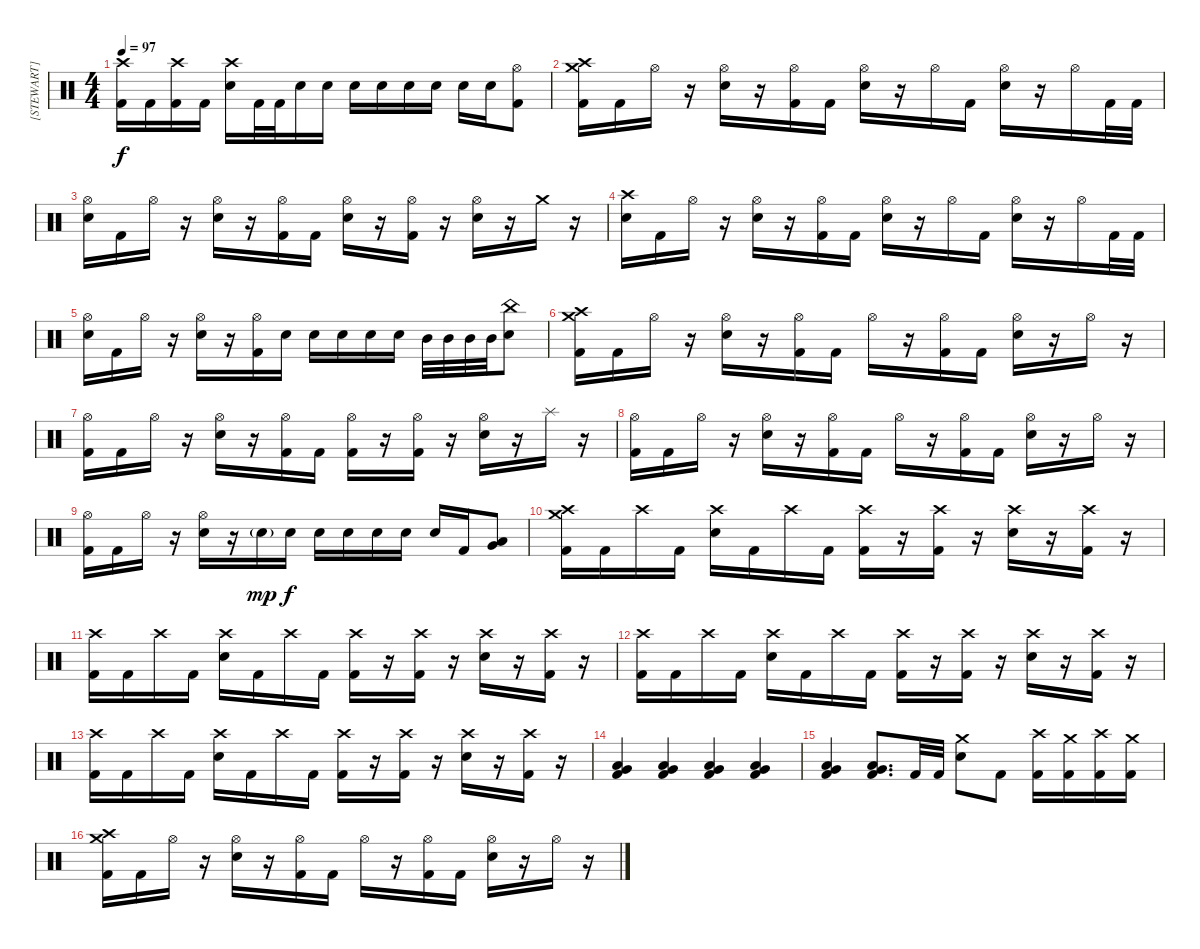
\track ("[STEWART]" "[STEWART]") {instrument percussion}
\staff {score}
\articulation defaults
\ts (4 4)
\tempo 97
\clef neutral
\ks c
("Crash high (hit)" "Kick (hit) 2").16{dy f} "Kick (hit) 2".16 ("Crash high (hit)" "Kick (hit) 2").16 "Kick (hit) 2".16 ("Crash high (hit)" "Electric Snare (hit)").16 "Kick (hit) 2".32 "Kick (hit) 2".32 "Electric Snare (hit)".16 "Electric Snare (hit)".16 "Electric Snare (hit)".16 "Electric Snare (hit)".16 "Electric Snare (hit)".16 "Electric Snare (hit)".16 "Electric Snare (hit)".16 "Electric Snare (hit)".16 ("Hi-Hat (open)" "Kick (hit) 2").8 |
("Crash high (hit)" "Crash medium (hit)" "Kick (hit) 2").16 "Kick (hit) 2".16 "Hi-Hat (open)".16 r.16 ("Hi-Hat (open)" "Electric Snare (hit)").16 r.16 ("Hi-Hat (open)" "Kick (hit) 2").16 "Kick (hit) 2".16 ("Hi-Hat (open)" "Electric Snare (hit)").16 r.16 "Hi-Hat (open)".16 "Kick (hit) 2".16 ("Hi-Hat (open)" "Electric Snare (hit)").16 r.16 "Hi-Hat (open)".16 "Kick (hit) 2".32 "Kick (hit) 2".32 |
("Hi-Hat (open)" "Electric Snare (hit)").16 "Kick (hit) 2".16 "Hi-Hat (open)".16 r.16 ("Hi-Hat (open)" "Electric Snare (hit)").16 r.16 ("Hi-Hat (open)" "Kick (hit) 2").16 "Kick (hit) 2".16 ("Hi-Hat (open)" "Electric Snare (hit)").16 r.16 ("Hi-Hat (open)" "Kick (hit) 2").16 r.16 ("Hi-Hat (open)" "Electric Snare (hit)").16 r.16 "Crash medium (hit)".16 r.16 |
("Crash high (hit)" "Electric Snare (hit)").16 "Kick (hit) 2".16 "Hi-Hat (open)".16 r.16 ("Hi-Hat (open)" "Electric Snare (hit)").16 r.16 ("Hi-Hat (open)" "Kick (hit) 2").16 "Kick (hit) 2".16 ("Hi-Hat (open)" "Electric Snare (hit)").16 r.16 "Hi-Hat (open)".16 "Kick (hit) 2".16 ("Hi-Hat (open)" "Electric Snare (hit)").16 r.16 "Hi-Hat (open)".16 "Kick (hit) 2".32 "Kick (hit) 2".32 |
("Hi-Hat (open)" "Electric Snare (hit)").16 "Kick (hit) 2".16 "Hi-Hat (open)".16 r.16 ("Hi-Hat (open)" "Electric Snare (hit)").16 r.16 ("Hi-Hat (open)" "Kick (hit) 2").16 "Electric Snare (hit)".16 "Electric Snare (hit)".16 "Electric Snare (hit)".16 "Electric Snare (hit)".16 "Electric Snare (hit)".16 "Mid Tom (hit)".32 "Mid Tom (hit)".32 "Mid Tom (hit)".32 "Mid Tom (hit)".32 ("China (hit)" "Electric Snare (hit)").8 |
("Crash high (hit)" "Crash medium (hit)" "Kick (hit) 2").16 "Kick (hit) 2".16 "Hi-Hat (open)".16 r.16 ("Hi-Hat (open)" "Electric Snare (hit)").16 r.16 ("Hi-Hat (open)" "Kick (hit) 2").16 "Kick (hit) 2".16 "Hi-Hat (open)".16 r.16 ("Hi-Hat (open)" "Kick (hit) 2").16 "Kick (hit) 2".16 ("Hi-Hat (open)" "Electric Snare (hit)").16 r.16 "Hi-Hat (open)".16 r.16 |
("Hi-Hat (open)" "Kick (hit) 2").16 "Kick (hit) 2".16 "Hi-Hat (open)".16 r.16 ("Hi-Hat (open)" "Electric Snare (hit)").16 r.16 ("Hi-Hat (open)" "Kick (hit) 2").16 "Kick (hit) 2".16 ("Hi-Hat (open)" "Kick (hit) 2").16 r.16 ("Hi-Hat (open)" "Kick (hit) 2").16 r.16 ("Hi-Hat (open)" "Electric Snare (hit)").16 r.16 "Splash (hit)".16 r.16 |
("Hi-Hat (open)" "Kick (hit) 2").16 "Kick (hit) 2".16 "Hi-Hat (open)".16 r.16 ("Hi-Hat (open)" "Electric Snare (hit)").16 r.16 ("Hi-Hat (open)" "Kick (hit) 2").16 "Kick (hit) 2".16 "Hi-Hat (open)".16 r.16 ("Hi-Hat (open)" "Kick (hit) 2").16 "Kick (hit) 2".16 ("Hi-Hat (open)" "Electric Snare (hit)").16 r.16 "Hi-Hat (open)".16 r.16 |
("Hi-Hat (open)" "Kick (hit) 2").16 "Kick (hit) 2".16 "Hi-Hat (open)".16 r.16 ("Hi-Hat (open)" "Electric Snare (hit)").16 r.16 "Electric Snare (hit)"{g}.16{dy mp} "Electric Snare (hit)".16{dy f} "Electric Snare (hit)".16 "Electric Snare (hit)".16 "Electric Snare (hit)".16 "Electric Snare (hit)".16 "Electric Snare (hit)".16 "Kick (hit) 2".16 ("Low Tom (hit)" "Very Low Tom (hit)").8 |
("Crash high (hit)" "Crash medium (hit)" "Kick (hit) 2").16 "Kick (hit) 2".16 "Crash high (hit)".16 "Kick (hit) 2".16 ("Crash high (hit)" "Electric Snare (hit)").16 "Kick (hit) 2".16 "Crash high (hit)".16 "Kick (hit) 2".16 ("Crash high (hit)" "Kick (hit) 2").16 r.16 ("Crash high (hit)" "Kick (hit) 2").16 r.16 ("Crash high (hit)" "Electric Snare (hit)").16 r.16 ("Crash high (hit)" "Kick (hit) 2").16 r.16 |
("Crash high (hit)" "Kick (hit) 2").16 "Kick (hit) 2".16 "Crash high (hit)".16 "Kick (hit) 2".16 ("Crash high (hit)" "Electric Snare (hit)").16 "Kick (hit) 2".16 "Crash high (hit)".16 "Kick (hit) 2".16 ("Crash high (hit)" "Kick (hit) 2").16 r.16 ("Crash high (hit)" "Kick (hit) 2").16 r.16 ("Crash high (hit)" "Electric Snare (hit)").16 r.16 ("Crash high (hit)" "Kick (hit) 2").16 r.16 |
("Crash high (hit)" "Kick (hit) 2").16 "Kick (hit) 2".16 "Crash high (hit)".16 "Kick (hit) 2".16 ("Crash high (hit)" "Electric Snare (hit)").16 "Kick (hit) 2".16 "Crash high (hit)".16 "Kick (hit) 2".16 ("Crash high (hit)" "Kick (hit) 2").16 r.16 ("Crash high (hit)" "Kick (hit) 2").16 r.16 ("Crash high (hit)" "Electric Snare (hit)").16 r.16 ("Crash high (hit)" "Kick (hit) 2").16 r.16 |
("Crash high (hit)" "Kick (hit) 2").16 "Kick (hit) 2".16 "Crash high (hit)".16 "Kick (hit) 2".16 ("Crash high (hit)" "Electric Snare (hit)").16 "Kick (hit) 2".16 "Crash high (hit)".16 "Kick (hit) 2".16 ("Crash high (hit)" "Kick (hit) 2").16 r.16 ("Crash high (hit)" "Kick (hit) 2").16 r.16 ("Crash high (hit)" "Electric Snare (hit)").16 r.16 ("Crash high (hit)" "Kick (hit) 2").16 r.16 |
("Low Tom (hit)" "Very Low Tom (hit)" "Kick (hit) 2").4 ("Low Tom (hit)" "Very Low Tom (hit)" "Kick (hit) 2").4 ("Low Tom (hit)" "Very Low Tom (hit)" "Kick (hit) 2").4 ("Low Tom (hit)" "Very Low Tom (hit)" "Kick (hit) 2").4 |
("Low Tom (hit)" "Very Low Tom (hit)" "Kick (hit) 2").4 ("Low Tom (hit)" "Very Low Tom (hit)" "Kick (hit) 2").8{d} "Kick (hit) 2".32 "Kick (hit) 2".32 ("Crash medium (hit)" "Electric Snare (hit)").8 "Kick (hit) 2".8 ("Crash high (hit)" "Kick (hit) 2").16 ("Crash medium (hit)" "Kick (hit) 2").16 ("Crash high (hit)" "Kick (hit) 2").16 ("Crash medium (hit)" "Kick (hit) 2").16 |
("Crash high (hit)" "Crash medium (hit)" "Kick (hit) 2").16 "Kick (hit) 2".16 "Hi-Hat (open)".16 r.16 ("Hi-Hat (open)" "Electric Snare (hit)").16 r.16 ("Hi-Hat (open)" "Kick (hit) 2").16 "Kick (hit) 2".16 "Hi-Hat (open)".16 r.16 ("Hi-Hat (open)" "Kick (hit) 2").16 "Kick (hit) 2".16 ("Hi-Hat (open)" "Electric Snare (hit)").16 r.16 "Hi-Hat (open)".16 r.16
